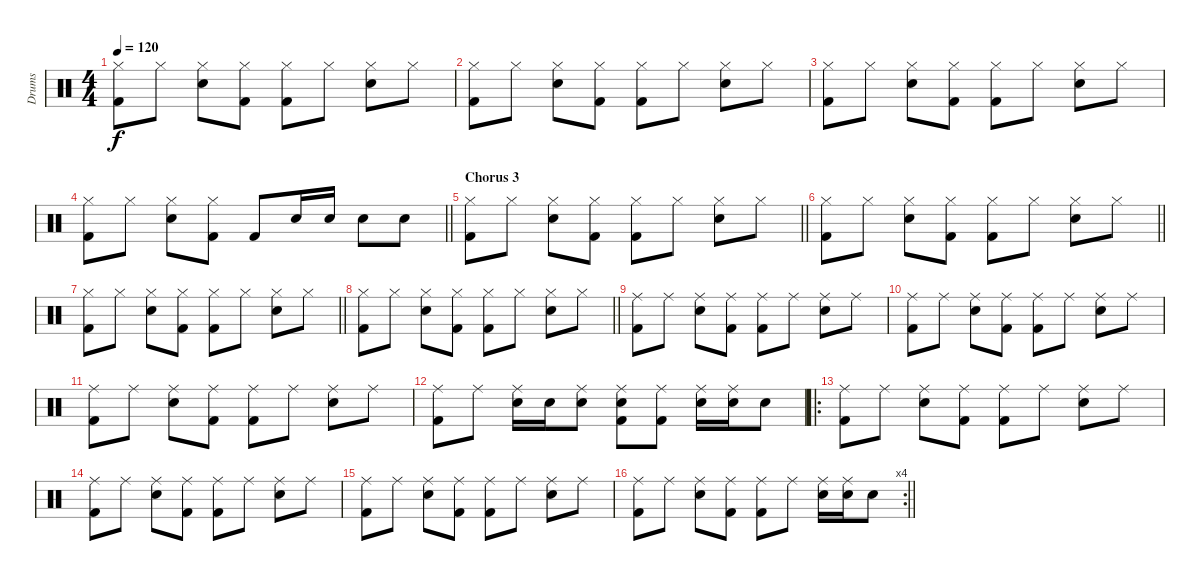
\track ("Drums" "Drums") {instrument percussion}
\staff
\articulation defaults
\ts (4 4)
\tempo 120
\clef neutral
\ks c
("Hi-Hat (closed)" "Kick (hit) 2").8{dy f} "Hi-Hat (closed)".8 ("Hi-Hat (closed)" "Electric Snare (hit)").8 ("Hi-Hat (closed)" "Kick (hit) 2").8 ("Hi-Hat (closed)" "Kick (hit) 2").8 "Hi-Hat (closed)".8 ("Hi-Hat (closed)" "Electric Snare (hit)").8 "Hi-Hat (closed)".8 |
("Hi-Hat (closed)" "Kick (hit) 2").8 "Hi-Hat (closed)".8 ("Hi-Hat (closed)" "Electric Snare (hit)").8 ("Hi-Hat (closed)" "Kick (hit) 2").8 ("Hi-Hat (closed)" "Kick (hit) 2").8 "Hi-Hat (closed)".8 ("Hi-Hat (closed)" "Electric Snare (hit)").8 "Hi-Hat (closed)".8 |
("Hi-Hat (closed)" "Kick (hit) 2").8 "Hi-Hat (closed)".8 ("Hi-Hat (closed)" "Electric Snare (hit)").8 ("Hi-Hat (closed)" "Kick (hit) 2").8 ("Hi-Hat (closed)" "Kick (hit) 2").8 "Hi-Hat (closed)".8 ("Hi-Hat (closed)" "Electric Snare (hit)").8 "Hi-Hat (closed)".8 |
\barLineRight lightlight
("Hi-Hat (closed)" "Kick (hit) 2").8 "Hi-Hat (closed)".8 ("Hi-Hat (closed)" "Electric Snare (hit)").8 ("Hi-Hat (closed)" "Kick (hit) 2").8 "Kick (hit) 2".8 "Electric Snare (hit)".16 "Electric Snare (hit)".16 "Electric Snare (hit)".8 "Electric Snare (hit)".8 |
\section ("" "Chorus 3")
\barLineRight lightlight
("Hi-Hat (closed)" "Kick (hit) 2").8 "Hi-Hat (closed)".8 ("Hi-Hat (closed)" "Electric Snare (hit)").8 ("Hi-Hat (closed)" "Kick (hit) 2").8 ("Hi-Hat (closed)" "Kick (hit) 2").8 "Hi-Hat (closed)".8 ("Hi-Hat (closed)" "Electric Snare (hit)").8 "Hi-Hat (closed)".8 |
\barLineRight lightlight
("Hi-Hat (closed)" "Kick (hit) 2").8 "Hi-Hat (closed)".8 ("Hi-Hat (closed)" "Electric Snare (hit)").8 ("Hi-Hat (closed)" "Kick (hit) 2").8 ("Hi-Hat (closed)" "Kick (hit) 2").8 "Hi-Hat (closed)".8 ("Hi-Hat (closed)" "Electric Snare (hit)").8 "Hi-Hat (closed)".8 |
\barLineRight lightlight
("Hi-Hat (closed)" "Kick (hit) 2").8 "Hi-Hat (closed)".8 ("Hi-Hat (closed)" "Electric Snare (hit)").8 ("Hi-Hat (closed)" "Kick (hit) 2").8 ("Hi-Hat (closed)" "Kick (hit) 2").8 "Hi-Hat (closed)".8 ("Hi-Hat (closed)" "Electric Snare (hit)").8 "Hi-Hat (closed)".8 |
\barLineRight lightlight
("Hi-Hat (closed)" "Kick (hit) 2").8 "Hi-Hat (closed)".8 ("Hi-Hat (closed)" "Electric Snare (hit)").8 ("Hi-Hat (closed)" "Kick (hit) 2").8 ("Hi-Hat (closed)" "Kick (hit) 2").8 "Hi-Hat (closed)".8 ("Hi-Hat (closed)" "Electric Snare (hit)").8 "Hi-Hat (closed)".8 |
("Ride (middle)" "Kick (hit) 2").8 "Ride (middle)".8 ("Ride (middle)" "Electric Snare (hit)").8 ("Ride (middle)" "Kick (hit) 2").8 ("Ride (middle)" "Kick (hit) 2").8 "Ride (middle)".8 ("Ride (middle)" "Electric Snare (hit)").8 "Ride (middle)".8 |
("Ride (middle)" "Kick (hit) 2").8 "Ride (middle)".8 ("Ride (middle)" "Electric Snare (hit)").8 ("Ride (middle)" "Kick (hit) 2").8 ("Ride (middle)" "Kick (hit) 2").8 "Ride (middle)".8 ("Ride (middle)" "Electric Snare (hit)").8 "Ride (middle)".8 |
("Ride (middle)" "Kick (hit) 2").8 "Ride (middle)".8 ("Ride (middle)" "Electric Snare (hit)").8 ("Ride (middle)" "Kick (hit) 2").8 ("Ride (middle)" "Kick (hit) 2").8 "Ride (middle)".8 ("Ride (middle)" "Electric Snare (hit)").8 "Ride (middle)".8 |
("Ride (middle)" "Kick (hit) 2").8 "Ride (middle)".8 ("Ride (middle)" "Electric Snare (hit)").16 "Electric Snare (hit)".16 ("Ride (middle)" "Electric Snare (hit)").8 ("Ride (middle)" "Electric Snare (hit)" "Kick (hit) 2").8 ("Ride (middle)" "Kick (hit) 2").8 ("Ride (middle)" "Electric Snare (hit)").16 ("Ride (middle)" "Electric Snare (hit)").16 "Electric Snare (hit)".8 |
\ro
("Ride (middle)" "Kick (hit) 2").8 "Ride (middle)".8 ("Ride (middle)" "Electric Snare (hit)").8 ("Ride (middle)" "Kick (hit) 2").8 ("Ride (middle)" "Kick (hit) 2").8 "Ride (middle)".8 ("Ride (middle)" "Electric Snare (hit)").8 "Ride (middle)".8 |
("Ride (middle)" "Kick (hit) 2").8 "Ride (middle)".8 ("Ride (middle)" "Electric Snare (hit)").8 ("Ride (middle)" "Kick (hit) 2").8 ("Ride (middle)" "Kick (hit) 2").8 "Ride (middle)".8 ("Ride (middle)" "Electric Snare (hit)").8 "Ride (middle)".8 |
("Ride (middle)" "Kick (hit) 2").8 "Ride (middle)".8 ("Ride (middle)" "Electric Snare (hit)").8 ("Ride (middle)" "Kick (hit) 2").8 ("Ride (middle)" "Kick (hit) 2").8 "Ride (middle)".8 ("Ride (middle)" "Electric Snare (hit)").8 "Ride (middle)".8 |
\rc 4
\barLineRight lightlight
("Ride (middle)" "Kick (hit) 2").8 "Ride (middle)".8 ("Ride (middle)" "Electric Snare (hit)").8 ("Ride (middle)" "Kick (hit) 2").8 ("Ride (middle)" "Kick (hit) 2").8 "Ride (middle)".8 ("Ride (middle)" "Electric Snare (hit)").16 ("Ride (middle)" "Electric Snare (hit)").16 "Electric Snare (hit)".8
